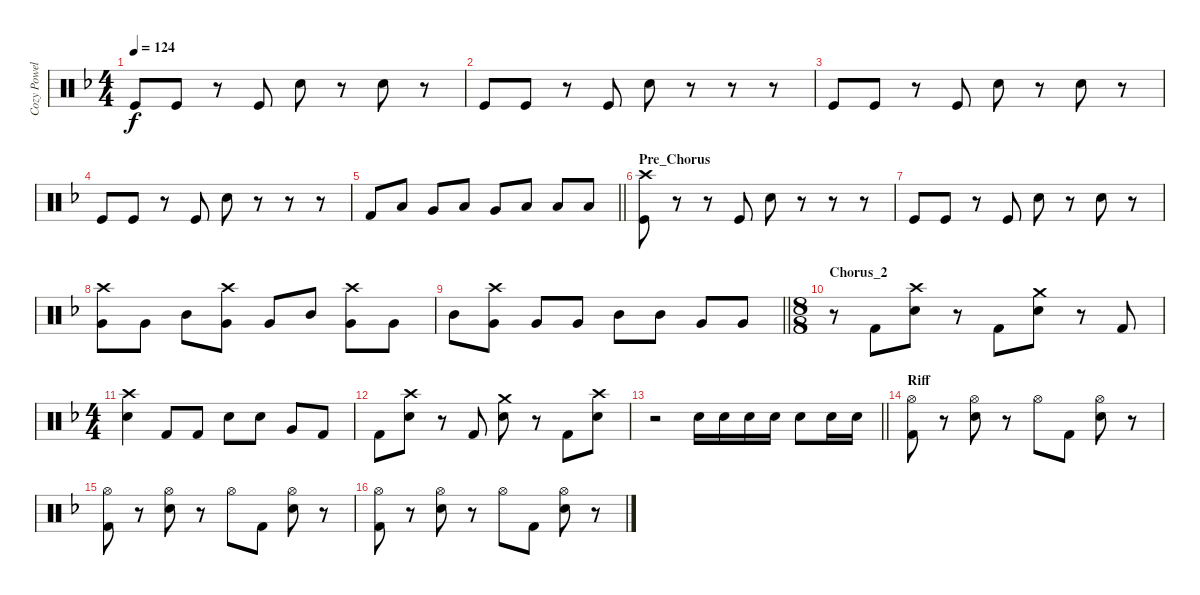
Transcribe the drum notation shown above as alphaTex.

\track ("Cozy Powell" "Cozy Powel") {instrument percussion}
\staff {score}
\articulation defaults
\ts (4 4)
\tempo 124
\clef neutral
\ks f "Kick (hit)".8{dy f} "Kick (hit)".8
r.8 "Kick (hit)".8 "Snare (hit) 2".8 r.8 "Snare (hit) 2".8 r.8 |
"Kick (hit)".8 "Kick (hit)".8 r.8 "Kick (hit)".8 "Snare (hit) 2".8 r.8 r.8 r.8 |
"Kick (hit)".8 "Kick (hit)".8 r.8 "Kick (hit)".8 "Snare (hit) 2".8 r.8 "Snare (hit) 2".8 r.8 |
"Kick (hit)".8 "Kick (hit)".8 r.8 "Kick (hit)".8 "Snare (hit) 2".8 r.8 r.8 r.8 |
\barLineRight lightlight "Kick (hit) 2".8 "Low Tom (hit)".8 "Very Low Tom (hit)".8 "Low Tom (hit)".8 "Very Low Tom (hit)".8 "Low Tom (hit)".8 "Low Tom (hit)".8 "Low Floor Tom (hit)".8
|
\section ("" "Pre_Chorus")
("Kick (hit)" "Crash high (hit)").8 r.8 r.8 "Kick (hit)".8 "Snare (hit) 2".8 r.8 r.8 r.8 |
"Kick (hit)".8 "Kick (hit)".8 r.8 "Kick (hit)".8 "Snare (hit) 2".8 r.8 "Snare (hit) 2".8 r.8 |
("Very Low Tom (hit)" "Crash high (hit)").8 "Very Low Tom (hit)".8 "Mid Tom (hit)".8 ("Very Low Tom (hit)" "Crash high (hit)").8 "Very Low Tom (hit)".8 "Mid Tom (hit)".8 ("Very Low Tom (hit)" "Crash high (hit)").8 "Very Low Tom (hit)".8 |
\barLineRight lightlight "Mid Tom (hit)".8
("Very Low Tom (hit)" "Crash high (hit)").8 "Very Low Tom (hit)".8 "Very Low Tom (hit)".8 "Mid Tom (hit)".8 "Mid Tom (hit)".8 "Very Low Tom (hit)".8 "Very Low Tom (hit)".8 |
\ts (8 8)
\section ("" "Chorus_2")
r.8 "Kick (hit) 2".8 ("Snare (hit) 2" "Crash high (hit)").8 r.8 "Kick (hit) 2".8 ("Snare (hit) 2" "Crash medium (hit)").8 r.8 "Kick (hit) 2".8 |
\ts (4 4)
("Snare (hit) 2" "Crash high (hit)").4 "Kick (hit) 2".8 "Kick (hit) 2".8 "Snare (hit) 2".8 "Snare (hit) 2".8 "Very Low Tom (hit)".8 "Kick (hit) 2".8 |
"Kick (hit) 2".8 ("Snare (hit) 2" "Crash high (hit)").8 r.8 "Kick (hit) 2".8 ("Snare (hit) 2" "Crash medium (hit)").8 r.8 "Kick (hit) 2".8 ("Snare (hit) 2" "Crash high (hit)").8 |
\barLineRight lightlight
r.2{volume 0} "Snare (hit) 2".16{volume 13} "Snare (hit) 2".16 "Snare (hit) 2".16 "Snare (hit) 2".16 "Snare (hit) 2".8 "Snare (hit) 2".16 "Snare (hit) 2".16 |
\section ("" "Riff")
("Hi-Hat (open)" "Kick (hit) 2").8 r.8 ("Hi-Hat (open)" "Snare (hit) 2").8 r.8 "Hi-Hat (open)".8 "Kick (hit) 2".8 ("Hi-Hat (open)" "Snare (hit) 2").8 r.8 |
("Hi-Hat (open)" "Kick (hit) 2").8 r.8 ("Hi-Hat (open)" "Snare (hit) 2").8 r.8 "Hi-Hat (open)".8 "Kick (hit) 2".8 ("Hi-Hat (open)" "Snare (hit) 2").8 r.8 |
("Hi-Hat (open)" "Kick (hit) 2").8 r.8 ("Hi-Hat (open)" "Snare (hit) 2").8 r.8 "Hi-Hat (open)".8 "Kick (hit) 2".8 ("Hi-Hat (open)" "Snare (hit) 2").8 r.8
